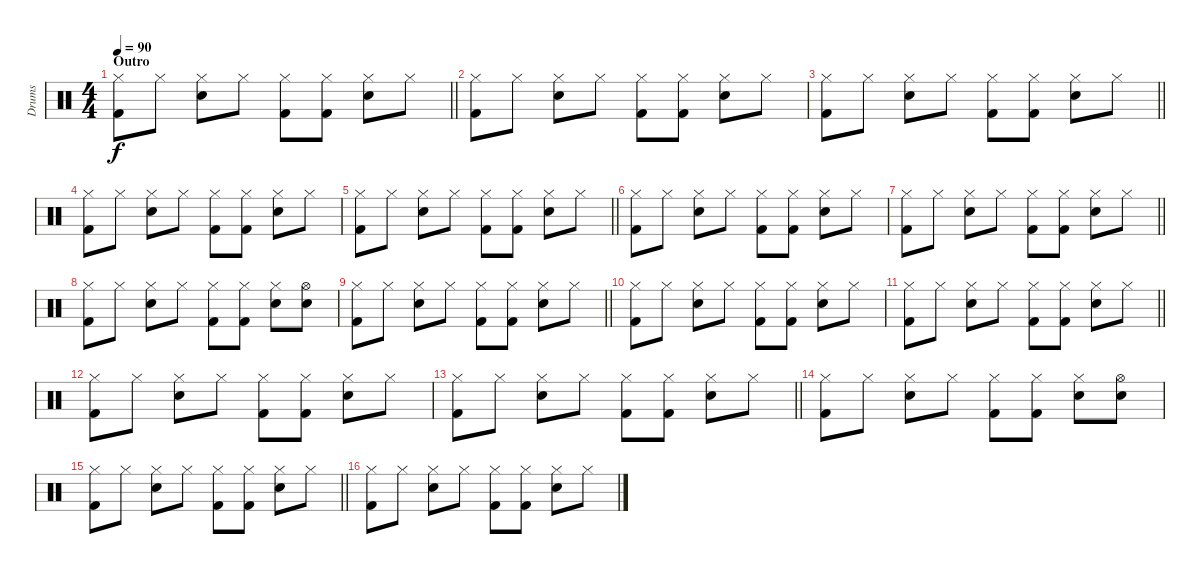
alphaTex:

\track ("Drums" "Drums") {instrument percussion}
\staff {score}
\articulation defaults
\ts (4 4)
\section ("" "Outro")
\tempo 90
\clef neutral
\barLineRight lightlight
\ks c
("Hi-Hat (closed)" "Kick (hit) 2").8{dy f} "Hi-Hat (closed)".8 ("Hi-Hat (closed)" "Electric Snare (hit)").8 "Hi-Hat (closed)".8 ("Hi-Hat (closed)" "Kick (hit) 2").8 ("Hi-Hat (closed)" "Kick (hit) 2").8 ("Hi-Hat (closed)" "Electric Snare (hit)").8 "Hi-Hat (closed)".8 |
("Hi-Hat (closed)" "Kick (hit) 2").8 "Hi-Hat (closed)".8 ("Hi-Hat (closed)" "Electric Snare (hit)").8 "Hi-Hat (closed)".8 ("Hi-Hat (closed)" "Kick (hit) 2").8 ("Hi-Hat (closed)" "Kick (hit) 2").8 ("Hi-Hat (closed)" "Electric Snare (hit)").8 "Hi-Hat (closed)".8 |
\barLineRight lightlight
("Hi-Hat (closed)" "Kick (hit) 2").8 "Hi-Hat (closed)".8 ("Hi-Hat (closed)" "Electric Snare (hit)").8 "Hi-Hat (closed)".8 ("Hi-Hat (closed)" "Kick (hit) 2").8 ("Hi-Hat (closed)" "Kick (hit) 2").8 ("Hi-Hat (closed)" "Electric Snare (hit)").8 "Hi-Hat (closed)".8 |
("Hi-Hat (closed)" "Kick (hit) 2").8 "Hi-Hat (closed)".8 ("Hi-Hat (closed)" "Electric Snare (hit)").8 "Hi-Hat (closed)".8 ("Hi-Hat (closed)" "Kick (hit) 2").8 ("Hi-Hat (closed)" "Kick (hit) 2").8 ("Hi-Hat (closed)" "Electric Snare (hit)").8 "Hi-Hat (closed)".8 |
\barLineRight lightlight
("Hi-Hat (closed)" "Kick (hit) 2").8 "Hi-Hat (closed)".8 ("Hi-Hat (closed)" "Electric Snare (hit)").8 "Hi-Hat (closed)".8 ("Hi-Hat (closed)" "Kick (hit) 2").8 ("Hi-Hat (closed)" "Kick (hit) 2").8 ("Hi-Hat (closed)" "Electric Snare (hit)").8 "Hi-Hat (closed)".8 |
("Hi-Hat (closed)" "Kick (hit) 2").8 "Hi-Hat (closed)".8 ("Hi-Hat (closed)" "Electric Snare (hit)").8 "Hi-Hat (closed)".8 ("Hi-Hat (closed)" "Kick (hit) 2").8 ("Hi-Hat (closed)" "Kick (hit) 2").8 ("Hi-Hat (closed)" "Electric Snare (hit)").8 "Hi-Hat (closed)".8 |
\barLineRight lightlight
("Hi-Hat (closed)" "Kick (hit) 2").8 "Hi-Hat (closed)".8 ("Hi-Hat (closed)" "Electric Snare (hit)").8 "Hi-Hat (closed)".8 ("Hi-Hat (closed)" "Kick (hit) 2").8 ("Hi-Hat (closed)" "Kick (hit) 2").8 ("Hi-Hat (closed)" "Electric Snare (hit)").8 "Hi-Hat (closed)".8 |
("Hi-Hat (closed)" "Kick (hit) 2").8 "Hi-Hat (closed)".8 ("Hi-Hat (closed)" "Electric Snare (hit)").8 "Hi-Hat (closed)".8 ("Hi-Hat (closed)" "Kick (hit) 2").8 ("Hi-Hat (closed)" "Kick (hit) 2").8 ("Hi-Hat (closed)" "Electric Snare (hit)").8 ("Hi-Hat (open)" "Electric Snare (hit)").8 |
\barLineRight lightlight
("Hi-Hat (closed)" "Kick (hit) 2").8 "Hi-Hat (closed)".8 ("Hi-Hat (closed)" "Electric Snare (hit)").8 "Hi-Hat (closed)".8 ("Hi-Hat (closed)" "Kick (hit) 2").8 ("Hi-Hat (closed)" "Kick (hit) 2").8 ("Hi-Hat (closed)" "Electric Snare (hit)").8 "Hi-Hat (closed)".8 |
("Hi-Hat (closed)" "Kick (hit) 2").8 "Hi-Hat (closed)".8 ("Hi-Hat (closed)" "Electric Snare (hit)").8 "Hi-Hat (closed)".8 ("Hi-Hat (closed)" "Kick (hit) 2").8 ("Hi-Hat (closed)" "Kick (hit) 2").8 ("Hi-Hat (closed)" "Electric Snare (hit)").8 "Hi-Hat (closed)".8 |
\barLineRight lightlight
("Hi-Hat (closed)" "Kick (hit) 2").8 "Hi-Hat (closed)".8 ("Hi-Hat (closed)" "Electric Snare (hit)").8 "Hi-Hat (closed)".8 ("Hi-Hat (closed)" "Kick (hit) 2").8 ("Hi-Hat (closed)" "Kick (hit) 2").8 ("Hi-Hat (closed)" "Electric Snare (hit)").8 "Hi-Hat (closed)".8 |
("Hi-Hat (closed)" "Kick (hit) 2").8 "Hi-Hat (closed)".8 ("Hi-Hat (closed)" "Electric Snare (hit)").8 "Hi-Hat (closed)".8 ("Hi-Hat (closed)" "Kick (hit) 2").8 ("Hi-Hat (closed)" "Kick (hit) 2").8 ("Hi-Hat (closed)" "Electric Snare (hit)").8 "Hi-Hat (closed)".8 |
\barLineRight lightlight
("Hi-Hat (closed)" "Kick (hit) 2").8 "Hi-Hat (closed)".8 ("Hi-Hat (closed)" "Electric Snare (hit)").8 "Hi-Hat (closed)".8 ("Hi-Hat (closed)" "Kick (hit) 2").8 ("Hi-Hat (closed)" "Kick (hit) 2").8 ("Hi-Hat (closed)" "Electric Snare (hit)").8 "Hi-Hat (closed)".8 |
("Hi-Hat (closed)" "Kick (hit) 2").8 "Hi-Hat (closed)".8 ("Hi-Hat (closed)" "Electric Snare (hit)").8 "Hi-Hat (closed)".8 ("Hi-Hat (closed)" "Kick (hit) 2").8 ("Hi-Hat (closed)" "Kick (hit) 2").8 ("Hi-Hat (closed)" "Electric Snare (hit)").8 ("Hi-Hat (open)" "Electric Snare (hit)").8 |
\barLineRight lightlight
("Hi-Hat (closed)" "Kick (hit) 2").8 "Hi-Hat (closed)".8 ("Hi-Hat (closed)" "Electric Snare (hit)").8 "Hi-Hat (closed)".8 ("Hi-Hat (closed)" "Kick (hit) 2").8 ("Hi-Hat (closed)" "Kick (hit) 2").8 ("Hi-Hat (closed)" "Electric Snare (hit)").8 "Hi-Hat (closed)".8 |
("Hi-Hat (closed)" "Kick (hit) 2").8 "Hi-Hat (closed)".8 ("Hi-Hat (closed)" "Electric Snare (hit)").8 "Hi-Hat (closed)".8 ("Hi-Hat (closed)" "Kick (hit) 2").8 ("Hi-Hat (closed)" "Kick (hit) 2").8 ("Hi-Hat (closed)" "Electric Snare (hit)").8 "Hi-Hat (closed)".8
